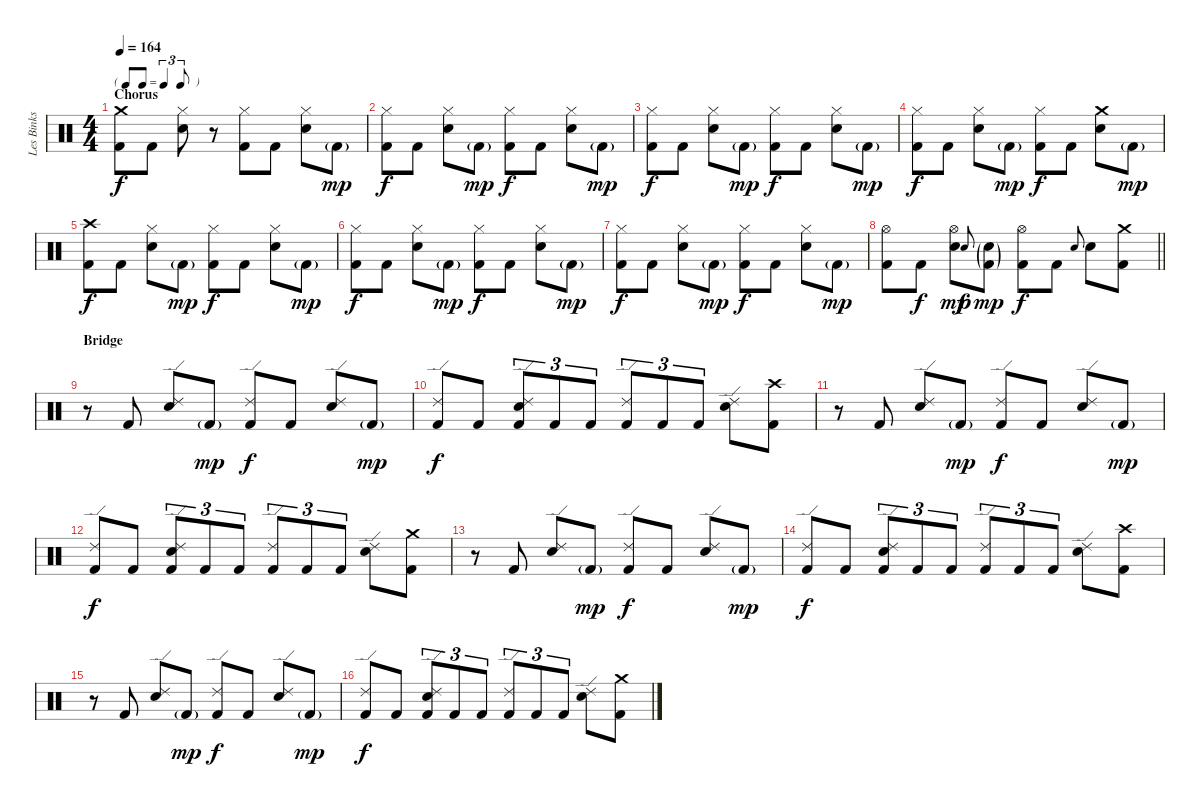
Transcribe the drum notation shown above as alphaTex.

\track ("Les Binks" "Les Binks") {instrument percussion}
\staff {score}
\articulation defaults
\ts (4 4)
\tf triplet8th
\section ("" "Chorus")
\tempo 164
\clef neutral
\ks c
("Crash medium (hit)" "Kick (hit) 2").8{dy f} "Kick (hit) 2".8 ("Hi-Hat (closed)" "Electric Snare (hit)").8 r.8 ("Hi-Hat (closed)" "Kick (hit) 2").8 "Kick (hit) 2".8 ("Hi-Hat (closed)" "Electric Snare (hit)").8 "Kick (hit) 2"{g}.8{dy mp} |
("Hi-Hat (closed)" "Kick (hit) 2").8{dy f} "Kick (hit) 2".8 ("Hi-Hat (closed)" "Electric Snare (hit)").8 "Kick (hit) 2"{g}.8{dy mp} ("Hi-Hat (closed)" "Kick (hit) 2").8{dy f} "Kick (hit) 2".8 ("Hi-Hat (closed)" "Electric Snare (hit)").8 "Kick (hit) 2"{g}.8{dy mp} |
("Hi-Hat (closed)" "Kick (hit) 2").8{dy f} "Kick (hit) 2".8 ("Hi-Hat (closed)" "Electric Snare (hit)").8 "Kick (hit) 2"{g}.8{dy mp} ("Hi-Hat (closed)" "Kick (hit) 2").8{dy f} "Kick (hit) 2".8 ("Hi-Hat (closed)" "Electric Snare (hit)").8 "Kick (hit) 2"{g}.8{dy mp} |
("Hi-Hat (closed)" "Kick (hit) 2").8{dy f} "Kick (hit) 2".8 ("Hi-Hat (closed)" "Electric Snare (hit)").8 "Kick (hit) 2"{g}.8{dy mp} ("Hi-Hat (closed)" "Kick (hit) 2").8{dy f} "Kick (hit) 2".8 ("Crash medium (hit)" "Electric Snare (hit)").8 "Kick (hit) 2"{g}.8{dy mp} |
("Crash high (hit)" "Kick (hit) 2").8{dy f} "Kick (hit) 2".8 ("Hi-Hat (closed)" "Electric Snare (hit)").8 "Kick (hit) 2"{g}.8{dy mp} ("Hi-Hat (closed)" "Kick (hit) 2").8{dy f} "Kick (hit) 2".8 ("Hi-Hat (closed)" "Electric Snare (hit)").8 "Kick (hit) 2"{g}.8{dy mp} |
("Hi-Hat (closed)" "Kick (hit) 2").8{dy f} "Kick (hit) 2".8 ("Hi-Hat (closed)" "Electric Snare (hit)").8 "Kick (hit) 2"{g}.8{dy mp} ("Hi-Hat (closed)" "Kick (hit) 2").8{dy f} "Kick (hit) 2".8 ("Hi-Hat (closed)" "Electric Snare (hit)").8 "Kick (hit) 2"{g}.8{dy mp} |
("Hi-Hat (closed)" "Kick (hit) 2").8{dy f} "Kick (hit) 2".8 ("Hi-Hat (closed)" "Electric Snare (hit)").8 "Kick (hit) 2"{g}.8{dy mp} ("Hi-Hat (closed)" "Kick (hit) 2").8{dy f} "Kick (hit) 2".8 ("Hi-Hat (closed)" "Electric Snare (hit)").8 "Kick (hit) 2"{g}.8{dy mp} |
\barLineRight lightlight
("Hi-Hat (open)" "Kick (hit) 2").8 "Kick (hit) 2".8{dy f} ("Hi-Hat (open)" "Electric Snare (hit)").8{dy mf} "Electric Snare (hit)".8{gr onbeat dy p} ("Electric Snare (hit)"{g} "Kick (hit) 2"{g}).8{dy mp} ("Hi-Hat (open)" "Kick (hit) 2").8{dy f} "Kick (hit) 2".8 "Electric Snare (hit)".8{gr onbeat} "Electric Snare (hit)".8 ("Crash medium (hit)" "Kick (hit) 2").8 |
\section ("" "Bridge")
r.8 "Kick (hit) 2".8 ("Ride (edge) 2" "Electric Snare (hit)").8 "Kick (hit) 2"{g}.8{dy mp} ("Ride (edge) 2" "Kick (hit) 2").8{dy f} "Kick (hit) 2".8 ("Ride (edge) 2" "Electric Snare (hit)").8 "Kick (hit) 2"{g}.8{dy mp} |
("Ride (edge) 2" "Kick (hit) 2").8{dy f} "Kick (hit) 2".8 ("Ride (edge) 2" "Electric Snare (hit)" "Kick (hit) 2").8{tu (3 2)} "Kick (hit) 2".8{tu (3 2)} "Kick (hit) 2".8{tu (3 2)} ("Ride (edge) 2" "Kick (hit) 2").8{tu (3 2)} "Kick (hit) 2".8{tu (3 2)} "Kick (hit) 2".8{tu (3 2)} ("Ride (edge) 2" "Electric Snare (hit)").8 ("Crash high (hit)" "Kick (hit) 2").8 |
r.8 "Kick (hit) 2".8 ("Ride (edge) 2" "Electric Snare (hit)").8 "Kick (hit) 2"{g}.8{dy mp} ("Ride (edge) 2" "Kick (hit) 2").8{dy f} "Kick (hit) 2".8 ("Ride (edge) 2" "Electric Snare (hit)").8 "Kick (hit) 2"{g}.8{dy mp} |
("Ride (edge) 2" "Kick (hit) 2").8{dy f} "Kick (hit) 2".8 ("Ride (edge) 2" "Electric Snare (hit)" "Kick (hit) 2").8{tu (3 2)} "Kick (hit) 2".8{tu (3 2)} "Kick (hit) 2".8{tu (3 2)} ("Ride (edge) 2" "Kick (hit) 2").8{tu (3 2)} "Kick (hit) 2".8{tu (3 2)} "Kick (hit) 2".8{tu (3 2)} ("Ride (edge) 2" "Electric Snare (hit)").8 ("Crash medium (hit)" "Kick (hit) 2").8 |
r.8 "Kick (hit) 2".8 ("Ride (edge) 2" "Electric Snare (hit)").8 "Kick (hit) 2"{g}.8{dy mp} ("Ride (edge) 2" "Kick (hit) 2").8{dy f} "Kick (hit) 2".8 ("Ride (edge) 2" "Electric Snare (hit)").8 "Kick (hit) 2"{g}.8{dy mp} |
("Ride (edge) 2" "Kick (hit) 2").8{dy f} "Kick (hit) 2".8 ("Ride (edge) 2" "Electric Snare (hit)" "Kick (hit) 2").8{tu (3 2)} "Kick (hit) 2".8{tu (3 2)} "Kick (hit) 2".8{tu (3 2)} ("Ride (edge) 2" "Kick (hit) 2").8{tu (3 2)} "Kick (hit) 2".8{tu (3 2)} "Kick (hit) 2".8{tu (3 2)} ("Ride (edge) 2" "Electric Snare (hit)").8 ("Crash high (hit)" "Kick (hit) 2").8 |
r.8 "Kick (hit) 2".8 ("Ride (edge) 2" "Electric Snare (hit)").8 "Kick (hit) 2"{g}.8{dy mp} ("Ride (edge) 2" "Kick (hit) 2").8{dy f} "Kick (hit) 2".8 ("Ride (edge) 2" "Electric Snare (hit)").8 "Kick (hit) 2"{g}.8{dy mp} |
("Ride (edge) 2" "Kick (hit) 2").8{dy f} "Kick (hit) 2".8 ("Ride (edge) 2" "Electric Snare (hit)" "Kick (hit) 2").8{tu (3 2)} "Kick (hit) 2".8{tu (3 2)} "Kick (hit) 2".8{tu (3 2)} ("Ride (edge) 2" "Kick (hit) 2").8{tu (3 2)} "Kick (hit) 2".8{tu (3 2)} "Kick (hit) 2".8{tu (3 2)} ("Ride (edge) 2" "Electric Snare (hit)").8 ("Crash medium (hit)" "Kick (hit) 2").8
